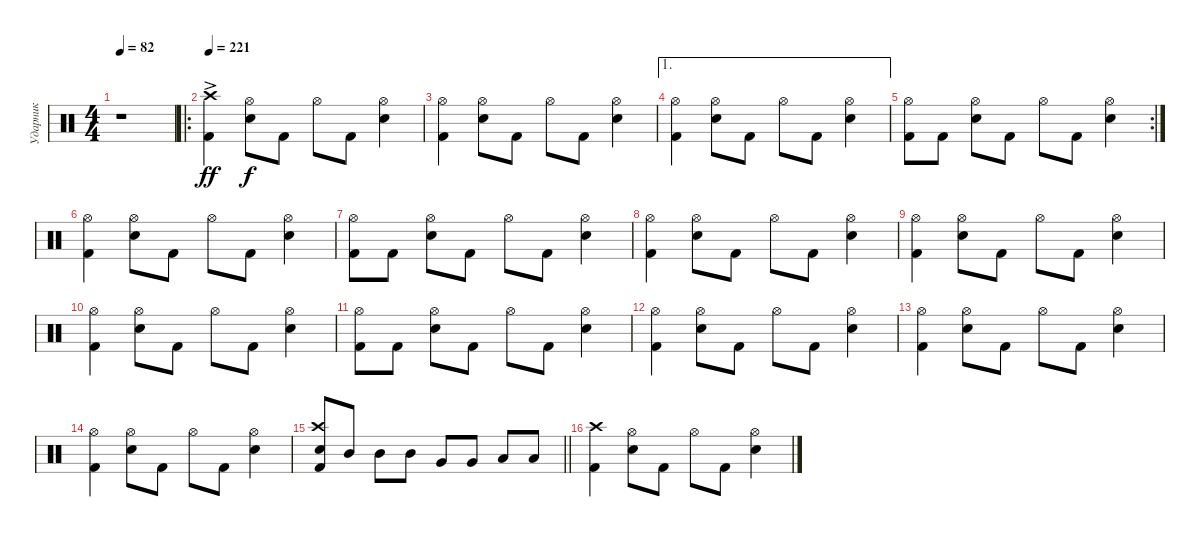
\track ("Ударник" "Ударник") {instrument percussion}
\staff {score}
\articulation defaults
\ts (4 4)
\tempo 82
\clef neutral
\ks c
r.1{dy ff} |
\ro
\tempo 221
("Kick (hit) 2" "Crash high (hit)"{ac}).4 ("Snare (hit) 2" "Hi-Hat (open)").8{dy f} "Kick (hit) 2".8 "Hi-Hat (open)".8 "Kick (hit) 2".8 ("Snare (hit) 2" "Hi-Hat (open)").4 |
("Kick (hit) 2" "Hi-Hat (open)").4 ("Snare (hit) 2" "Hi-Hat (open)").8 "Kick (hit) 2".8 "Hi-Hat (open)".8 "Kick (hit) 2".8 ("Snare (hit) 2" "Hi-Hat (open)").4 |
\ae 1
("Kick (hit) 2" "Hi-Hat (open)").4 ("Snare (hit) 2" "Hi-Hat (open)").8 "Kick (hit) 2".8 "Hi-Hat (open)".8 "Kick (hit) 2".8 ("Snare (hit) 2" "Hi-Hat (open)").4 |
\rc 2
("Kick (hit) 2" "Hi-Hat (open)").8 "Kick (hit) 2".8 ("Snare (hit) 2" "Hi-Hat (open)").8 "Kick (hit) 2".8 "Hi-Hat (open)".8 "Kick (hit) 2".8 ("Snare (hit) 2" "Hi-Hat (open)").4 |
("Kick (hit) 2" "Hi-Hat (open)").4 ("Snare (hit) 2" "Hi-Hat (open)").8 "Kick (hit) 2".8 "Hi-Hat (open)".8 "Kick (hit) 2".8 ("Snare (hit) 2" "Hi-Hat (open)").4 |
("Kick (hit) 2" "Hi-Hat (open)").8 "Kick (hit) 2".8 ("Snare (hit) 2" "Hi-Hat (open)").8 "Kick (hit) 2".8 "Hi-Hat (open)".8 "Kick (hit) 2".8 ("Snare (hit) 2" "Hi-Hat (open)").4 |
("Kick (hit) 2" "Hi-Hat (open)").4 ("Snare (hit) 2" "Hi-Hat (open)").8 "Kick (hit) 2".8 "Hi-Hat (open)".8 "Kick (hit) 2".8 ("Snare (hit) 2" "Hi-Hat (open)").4 |
("Kick (hit) 2" "Hi-Hat (open)").4 ("Snare (hit) 2" "Hi-Hat (open)").8 "Kick (hit) 2".8 "Hi-Hat (open)".8 "Kick (hit) 2".8 ("Snare (hit) 2" "Hi-Hat (open)").4 |
("Kick (hit) 2" "Hi-Hat (open)").4 ("Snare (hit) 2" "Hi-Hat (open)").8 "Kick (hit) 2".8 "Hi-Hat (open)".8 "Kick (hit) 2".8 ("Snare (hit) 2" "Hi-Hat (open)").4 |
("Kick (hit) 2" "Hi-Hat (open)").8 "Kick (hit) 2".8 ("Snare (hit) 2" "Hi-Hat (open)").8 "Kick (hit) 2".8 "Hi-Hat (open)".8 "Kick (hit) 2".8 ("Snare (hit) 2" "Hi-Hat (open)").4 |
("Kick (hit) 2" "Hi-Hat (open)").4 ("Snare (hit) 2" "Hi-Hat (open)").8 "Kick (hit) 2".8 "Hi-Hat (open)".8 "Kick (hit) 2".8 ("Snare (hit) 2" "Hi-Hat (open)").4 |
("Kick (hit) 2" "Hi-Hat (open)").4 ("Snare (hit) 2" "Hi-Hat (open)").8 "Kick (hit) 2".8 "Hi-Hat (open)".8 "Kick (hit) 2".8 ("Snare (hit) 2" "Hi-Hat (open)").4 |
("Kick (hit) 2" "Hi-Hat (open)").4 ("Snare (hit) 2" "Hi-Hat (open)").8 "Kick (hit) 2".8 "Hi-Hat (open)".8 "Kick (hit) 2".8 ("Snare (hit) 2" "Hi-Hat (open)").4 |
\barLineRight lightlight
("Kick (hit) 2" "Snare (hit) 2" "Crash high (hit)").8 "Mid Tom (hit)".8 "Mid Tom (hit)".8 "Mid Tom (hit)".8 "Very Low Tom (hit)".8 "Very Low Tom (hit)".8 "Low Floor Tom (hit)".8 "Low Floor Tom (hit)".8 |
("Kick (hit) 2" "Crash high (hit)").4 ("Snare (hit) 2" "Hi-Hat (open)").8 "Kick (hit) 2".8 "Hi-Hat (open)".8 "Kick (hit) 2".8 ("Snare (hit) 2" "Hi-Hat (open)").4
